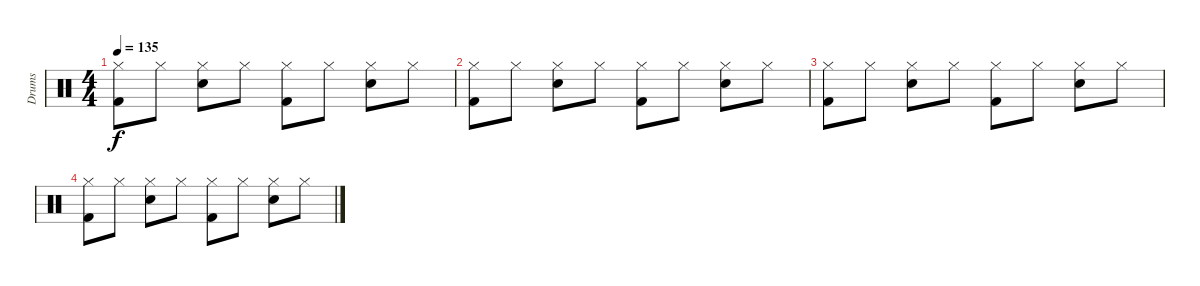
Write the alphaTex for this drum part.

\track ("Drums" "Drums") {instrument percussion}
\staff {score}
\articulation defaults
\ts (4 4)
\tempo 135
\clef neutral
\ks c
("Hi-Hat (closed)" "Kick (hit) 2").8{dy f volume 7} "Hi-Hat (closed)".8 ("Hi-Hat (closed)" "Snare (hit) 2").8 "Hi-Hat (closed)".8 ("Hi-Hat (closed)" "Kick (hit) 2").8 "Hi-Hat (closed)".8 ("Hi-Hat (closed)" "Snare (hit) 2").8 "Hi-Hat (closed)".8 |
("Hi-Hat (closed)" "Kick (hit) 2").8{volume 5} "Hi-Hat (closed)".8 ("Hi-Hat (closed)" "Snare (hit) 2").8 "Hi-Hat (closed)".8 ("Hi-Hat (closed)" "Kick (hit) 2").8 "Hi-Hat (closed)".8 ("Hi-Hat (closed)" "Snare (hit) 2").8 "Hi-Hat (closed)".8 |
("Hi-Hat (closed)" "Kick (hit) 2").8{volume 3} "Hi-Hat (closed)".8 ("Hi-Hat (closed)" "Snare (hit) 2").8 "Hi-Hat (closed)".8 ("Hi-Hat (closed)" "Kick (hit) 2").8 "Hi-Hat (closed)".8 ("Hi-Hat (closed)" "Snare (hit) 2").8 "Hi-Hat (closed)".8 |
("Hi-Hat (closed)" "Kick (hit) 2").8{volume 0} "Hi-Hat (closed)".8 ("Hi-Hat (closed)" "Snare (hit) 2").8 "Hi-Hat (closed)".8 ("Hi-Hat (closed)" "Kick (hit) 2").8 "Hi-Hat (closed)".8 ("Hi-Hat (closed)" "Snare (hit) 2").8 "Hi-Hat (closed)".8
